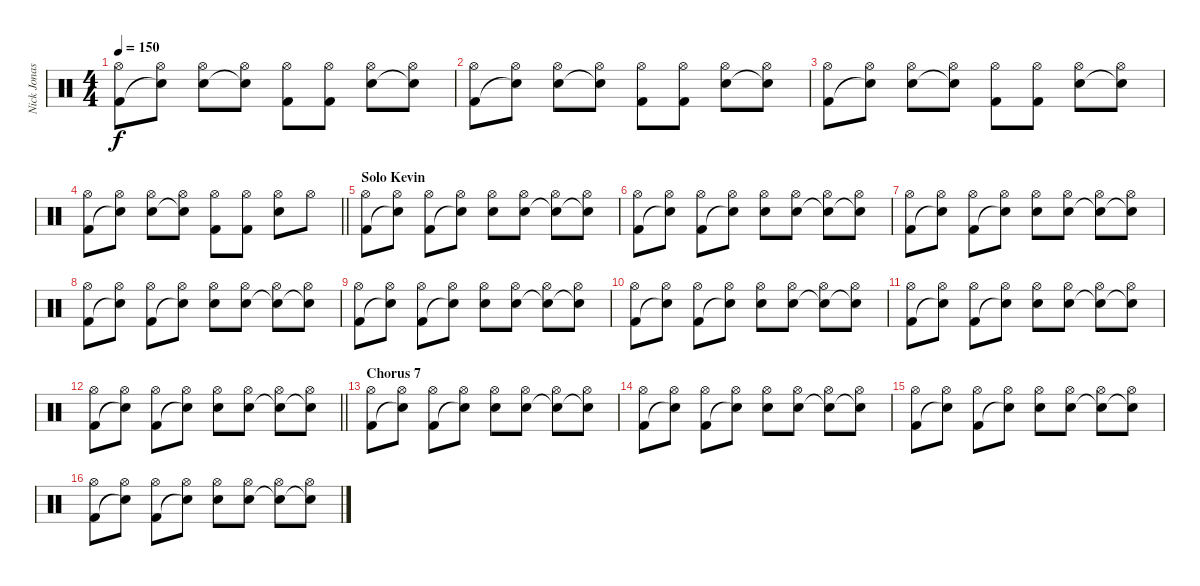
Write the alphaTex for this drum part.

\track ("Nick Jonas Drums" "Nick Jonas") {instrument percussion}
\staff {score}
\articulation defaults
\ts (4 4)
\tempo 150
\clef neutral
\ks c
("Hi-Hat (open)" "Kick (hit) 2").8{dy f} ("Hi-Hat (open)" "Snare (hit)"{t}).8 ("Hi-Hat (open)" "Electric Snare (hit)").8 ("Hi-Hat (open)" "Snare (hit)"{t}).8 ("Hi-Hat (open)" "Kick (hit) 2").8 ("Hi-Hat (open)" "Kick (hit) 2").8 ("Hi-Hat (open)" "Electric Snare (hit)").8 ("Hi-Hat (open)" "Snare (hit)"{t}).8 |
("Hi-Hat (open)" "Kick (hit) 2").8 ("Hi-Hat (open)" "Snare (hit)"{t}).8 ("Hi-Hat (open)" "Electric Snare (hit)").8 ("Hi-Hat (open)" "Snare (hit)"{t}).8 ("Hi-Hat (open)" "Kick (hit) 2").8 ("Hi-Hat (open)" "Kick (hit) 2").8 ("Hi-Hat (open)" "Electric Snare (hit)").8 ("Hi-Hat (open)" "Snare (hit)"{t}).8 |
("Hi-Hat (open)" "Kick (hit) 2").8 ("Hi-Hat (open)" "Snare (hit)"{t}).8 ("Hi-Hat (open)" "Electric Snare (hit)").8 ("Hi-Hat (open)" "Snare (hit)"{t}).8 ("Hi-Hat (open)" "Kick (hit) 2").8 ("Hi-Hat (open)" "Kick (hit) 2").8 ("Hi-Hat (open)" "Electric Snare (hit)").8 ("Hi-Hat (open)" "Snare (hit)"{t}).8 |
\barLineRight lightlight
("Hi-Hat (open)" "Kick (hit) 2").8 ("Hi-Hat (open)" "Snare (hit)"{t}).8 ("Hi-Hat (open)" "Electric Snare (hit)").8 ("Hi-Hat (open)" "Snare (hit)"{t}).8 ("Hi-Hat (open)" "Kick (hit) 2").8 ("Hi-Hat (open)" "Kick (hit) 2").8 ("Hi-Hat (open)" "Electric Snare (hit)").8 "Hi-Hat (open)".8 |
\section ("" "Solo Kevin")
("Hi-Hat (open)" "Kick (hit) 2").8 ("Hi-Hat (open)" "Snare (hit)"{t}).8 ("Hi-Hat (open)" "Kick (hit) 2").8 ("Hi-Hat (open)" "Snare (hit)"{t}).8 ("Hi-Hat (open)" "Electric Snare (hit)").8 ("Hi-Hat (open)" "Electric Snare (hit)").8 ("Hi-Hat (open)" "Snare (hit)"{t}).8 ("Hi-Hat (open)" "Snare (hit)"{t}).8 |
("Hi-Hat (open)" "Kick (hit) 2").8 ("Hi-Hat (open)" "Snare (hit)"{t}).8 ("Hi-Hat (open)" "Kick (hit) 2").8 ("Hi-Hat (open)" "Snare (hit)"{t}).8 ("Hi-Hat (open)" "Electric Snare (hit)").8 ("Hi-Hat (open)" "Electric Snare (hit)").8 ("Hi-Hat (open)" "Snare (hit)"{t}).8 ("Hi-Hat (open)" "Snare (hit)"{t}).8 |
("Hi-Hat (open)" "Kick (hit) 2").8 ("Hi-Hat (open)" "Snare (hit)"{t}).8 ("Hi-Hat (open)" "Kick (hit) 2").8 ("Hi-Hat (open)" "Snare (hit)"{t}).8 ("Hi-Hat (open)" "Electric Snare (hit)").8 ("Hi-Hat (open)" "Electric Snare (hit)").8 ("Hi-Hat (open)" "Snare (hit)"{t}).8 ("Hi-Hat (open)" "Snare (hit)"{t}).8 |
("Hi-Hat (open)" "Kick (hit) 2").8 ("Hi-Hat (open)" "Snare (hit)"{t}).8 ("Hi-Hat (open)" "Kick (hit) 2").8 ("Hi-Hat (open)" "Snare (hit)"{t}).8 ("Hi-Hat (open)" "Electric Snare (hit)").8 ("Hi-Hat (open)" "Electric Snare (hit)").8 ("Hi-Hat (open)" "Snare (hit)"{t}).8 ("Hi-Hat (open)" "Snare (hit)"{t}).8 |
("Hi-Hat (open)" "Kick (hit) 2").8 ("Hi-Hat (open)" "Snare (hit)"{t}).8 ("Hi-Hat (open)" "Kick (hit) 2").8 ("Hi-Hat (open)" "Snare (hit)"{t}).8 ("Hi-Hat (open)" "Electric Snare (hit)").8 ("Hi-Hat (open)" "Electric Snare (hit)").8 ("Hi-Hat (open)" "Snare (hit)"{t}).8 ("Hi-Hat (open)" "Snare (hit)"{t}).8 |
("Hi-Hat (open)" "Kick (hit) 2").8 ("Hi-Hat (open)" "Snare (hit)"{t}).8 ("Hi-Hat (open)" "Kick (hit) 2").8 ("Hi-Hat (open)" "Snare (hit)"{t}).8 ("Hi-Hat (open)" "Electric Snare (hit)").8 ("Hi-Hat (open)" "Electric Snare (hit)").8 ("Hi-Hat (open)" "Snare (hit)"{t}).8 ("Hi-Hat (open)" "Snare (hit)"{t}).8 |
("Hi-Hat (open)" "Kick (hit) 2").8 ("Hi-Hat (open)" "Snare (hit)"{t}).8 ("Hi-Hat (open)" "Kick (hit) 2").8 ("Hi-Hat (open)" "Snare (hit)"{t}).8 ("Hi-Hat (open)" "Electric Snare (hit)").8 ("Hi-Hat (open)" "Electric Snare (hit)").8 ("Hi-Hat (open)" "Snare (hit)"{t}).8 ("Hi-Hat (open)" "Snare (hit)"{t}).8 |
\barLineRight lightlight
("Hi-Hat (open)" "Kick (hit) 2").8 ("Hi-Hat (open)" "Snare (hit)"{t}).8 ("Hi-Hat (open)" "Kick (hit) 2").8 ("Hi-Hat (open)" "Snare (hit)"{t}).8 ("Hi-Hat (open)" "Electric Snare (hit)").8 ("Hi-Hat (open)" "Electric Snare (hit)").8 ("Hi-Hat (open)" "Snare (hit)"{t}).8 ("Hi-Hat (open)" "Snare (hit)"{t}).8 |
\section ("" "Chorus 7")
("Hi-Hat (open)" "Kick (hit) 2").8 ("Hi-Hat (open)" "Snare (hit)"{t}).8 ("Hi-Hat (open)" "Kick (hit) 2").8 ("Hi-Hat (open)" "Snare (hit)"{t}).8 ("Hi-Hat (open)" "Electric Snare (hit)").8 ("Hi-Hat (open)" "Electric Snare (hit)").8 ("Hi-Hat (open)" "Snare (hit)"{t}).8 ("Hi-Hat (open)" "Snare (hit)"{t}).8 |
("Hi-Hat (open)" "Kick (hit) 2").8 ("Hi-Hat (open)" "Snare (hit)"{t}).8 ("Hi-Hat (open)" "Kick (hit) 2").8 ("Hi-Hat (open)" "Snare (hit)"{t}).8 ("Hi-Hat (open)" "Electric Snare (hit)").8 ("Hi-Hat (open)" "Electric Snare (hit)").8 ("Hi-Hat (open)" "Snare (hit)"{t}).8 ("Hi-Hat (open)" "Snare (hit)"{t}).8 |
("Hi-Hat (open)" "Kick (hit) 2").8 ("Hi-Hat (open)" "Snare (hit)"{t}).8 ("Hi-Hat (open)" "Kick (hit) 2").8 ("Hi-Hat (open)" "Snare (hit)"{t}).8 ("Hi-Hat (open)" "Electric Snare (hit)").8 ("Hi-Hat (open)" "Electric Snare (hit)").8 ("Hi-Hat (open)" "Snare (hit)"{t}).8 ("Hi-Hat (open)" "Snare (hit)"{t}).8 |
("Hi-Hat (open)" "Kick (hit) 2").8 ("Hi-Hat (open)" "Snare (hit)"{t}).8 ("Hi-Hat (open)" "Kick (hit) 2").8 ("Hi-Hat (open)" "Snare (hit)"{t}).8 ("Hi-Hat (open)" "Electric Snare (hit)").8 ("Hi-Hat (open)" "Electric Snare (hit)").8 ("Hi-Hat (open)" "Snare (hit)"{t}).8 ("Hi-Hat (open)" "Snare (hit)"{t}).8
